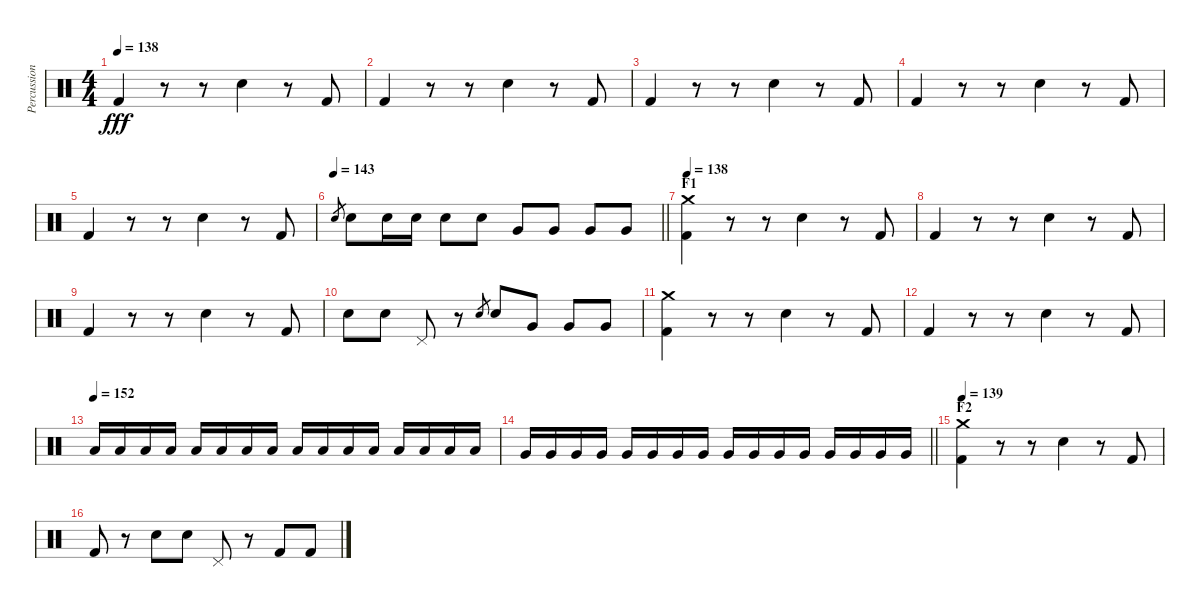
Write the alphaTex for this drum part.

\track ("Percussion" "Percussion") {instrument percussion}
\staff {score}
\articulation defaults
\ts (4 4)
\tempo 138
\clef neutral
\ks c "Kick (hit) 2".4{dy fff}
r.8 r.8 "Electric Snare (hit)".4 r.8 "Kick (hit) 2".8 |
"Kick (hit) 2".4 r.8 r.8 "Electric Snare (hit)".4 r.8 "Kick (hit) 2".8 |
"Kick (hit) 2".4 r.8 r.8 "Electric Snare (hit)".4 r.8 "Kick (hit) 2".8 |
"Kick (hit) 2".4 r.8 r.8 "Electric Snare (hit)".4 r.8 "Kick (hit) 2".8 |
"Kick (hit) 2".4 r.8 r.8 "Electric Snare (hit)".4 r.8 "Kick (hit) 2".8 |
\tempo 143
\barLineRight lightlight "Electric Snare (hit)".8{gr} "Electric Snare (hit)".8 "Electric Snare (hit)".16 "Electric Snare (hit)".16 "Electric Snare (hit)".8 "Electric Snare (hit)".8 "Very Low Tom (hit)".8 "Very Low Tom (hit)".8 "Very Low Tom (hit)".8 "Very Low Tom (hit)".8
|
\section ("" "F1")
\tempo 138
("Kick (hit) 2" "Crash medium (hit)").4 r.8 r.8 "Electric Snare (hit)".4 r.8 "Kick (hit) 2".8 |
"Kick (hit) 2".4 r.8 r.8 "Electric Snare (hit)".4 r.8 "Kick (hit) 2".8 |
"Kick (hit) 2".4 r.8 r.8 "Electric Snare (hit)".4 r.8 "Kick (hit) 2".8 |
"Electric Snare (hit)".8 "Electric Snare (hit)".8 "Pedal Hi-Hat (hit)".8 r.8 "Electric Snare (hit)".8{gr} "Electric Snare (hit)".8 "Very Low Tom (hit)".8 "Very Low Tom (hit)".8 "Very Low Tom (hit)".8 |
("Kick (hit) 2" "Crash medium (hit)").4 r.8 r.8 "Electric Snare (hit)".4 r.8 "Kick (hit) 2".8 |
"Kick (hit) 2".4 r.8 r.8 "Electric Snare (hit)".4 r.8 "Kick (hit) 2".8 |
\tempo (152)
"Low Tom (hit)".16 "Low Tom (hit)".16 "Low Tom (hit)".16 "Low Tom (hit)".16 "Low Tom (hit)".16 "Low Tom (hit)".16 "Low Tom (hit)".16 "Low Tom (hit)".16 "Low Tom (hit)".16 "Low Tom (hit)".16 "Low Tom (hit)".16 "Low Tom (hit)".16 "Low Tom (hit)".16 "Low Tom (hit)".16 "Low Tom (hit)".16 "Low Tom (hit)".16 |
\barLineRight lightlight "Very Low Tom (hit)".16 "Very Low Tom (hit)".16 "Very Low Tom (hit)".16 "Very Low Tom (hit)".16 "Very Low Tom (hit)".16 "Very Low Tom (hit)".16 "Very Low Tom (hit)".16 "Very Low Tom (hit)".16 "Very Low Tom (hit)".16 "Very Low Tom (hit)".16 "Very Low Tom (hit)".16 "Very Low Tom (hit)".16 "Very Low Tom (hit)".16 "Very Low Tom (hit)".16 "Very Low Tom (hit)".16 "Very Low Tom (hit)".16
|
\section ("" "F2")
\tempo 139
("Kick (hit) 2" "Crash medium (hit)").4 r.8 r.8 "Electric Snare (hit)".4 r.8 "Kick (hit) 2".8 |
"Kick (hit) 2".8 r.8 "Electric Snare (hit)".8 "Electric Snare (hit)".8 "Pedal Hi-Hat (hit)".8 r.8 "Kick (hit) 2".8 "Kick (hit) 2".8
